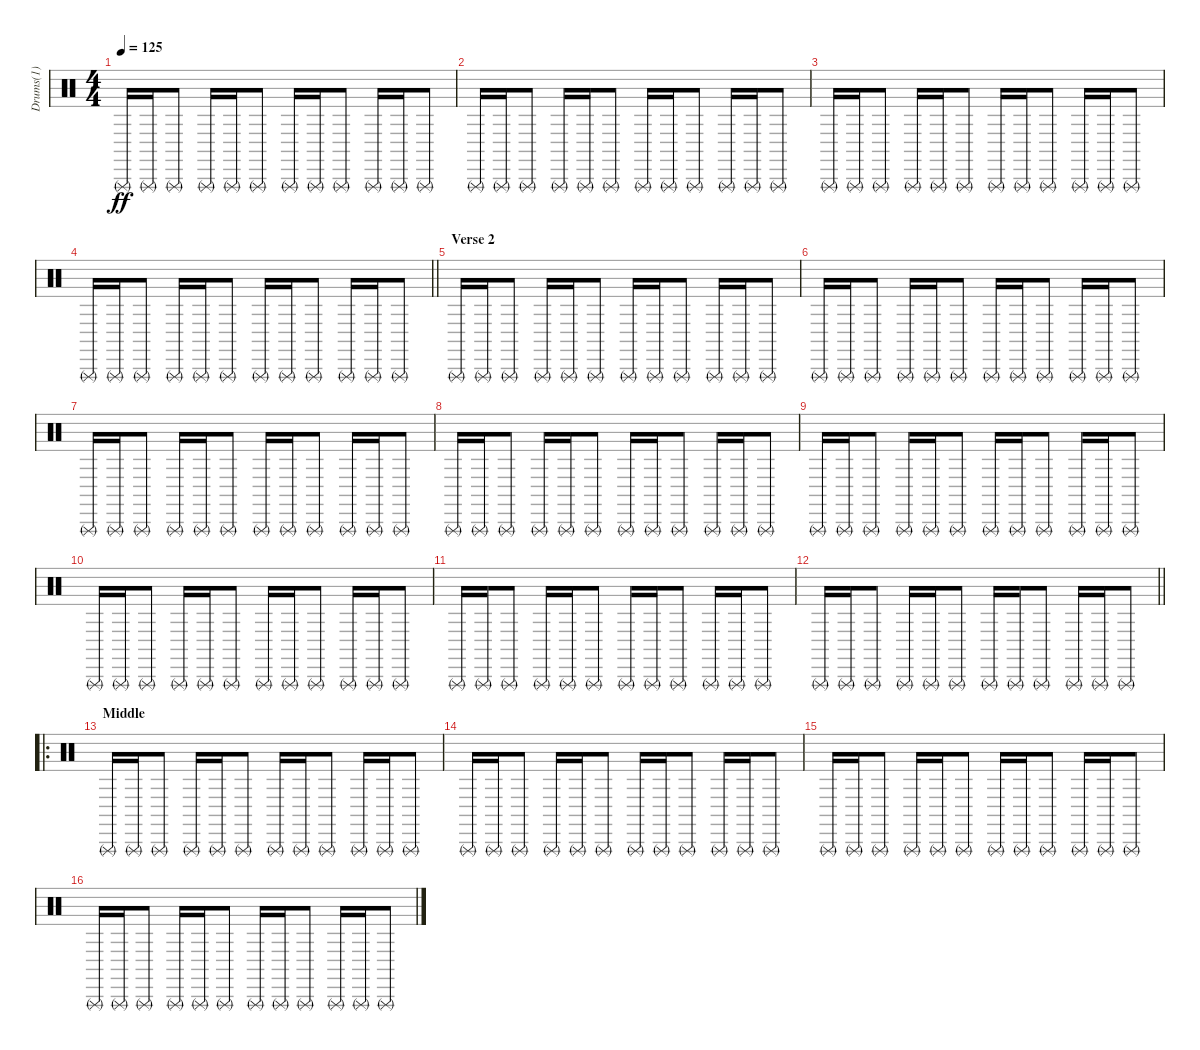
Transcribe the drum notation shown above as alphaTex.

\track ("Drums(1)" "Drums(1)") {instrument percussion}
\staff {score}
\articulation defaults
\ts (4 4)
\tempo 125
\clef neutral
\ks c "Triangle (rnute)".16{dy ff} "Triangle (rnute)".16 "Triangle (rnute)".8 "Triangle (rnute)".16 "Triangle (rnute)".16 "Triangle (rnute)".8 "Triangle (rnute)".16 "Triangle (rnute)".16 "Triangle (rnute)".8 "Triangle (rnute)".16 "Triangle (rnute)".16 "Triangle (rnute)".8
|
"Triangle (rnute)".16 "Triangle (rnute)".16 "Triangle (rnute)".8 "Triangle (rnute)".16 "Triangle (rnute)".16 "Triangle (rnute)".8 "Triangle (rnute)".16 "Triangle (rnute)".16 "Triangle (rnute)".8 "Triangle (rnute)".16 "Triangle (rnute)".16 "Triangle (rnute)".8 |
"Triangle (rnute)".16 "Triangle (rnute)".16 "Triangle (rnute)".8 "Triangle (rnute)".16 "Triangle (rnute)".16 "Triangle (rnute)".8 "Triangle (rnute)".16 "Triangle (rnute)".16 "Triangle (rnute)".8 "Triangle (rnute)".16 "Triangle (rnute)".16 "Triangle (rnute)".8 |
\barLineRight lightlight "Triangle (rnute)".16 "Triangle (rnute)".16 "Triangle (rnute)".8 "Triangle (rnute)".16 "Triangle (rnute)".16 "Triangle (rnute)".8 "Triangle (rnute)".16 "Triangle (rnute)".16 "Triangle (rnute)".8 "Triangle (rnute)".16 "Triangle (rnute)".16 "Triangle (rnute)".8
|
\section ("" "Verse 2")
"Triangle (rnute)".16 "Triangle (rnute)".16 "Triangle (rnute)".8 "Triangle (rnute)".16 "Triangle (rnute)".16 "Triangle (rnute)".8 "Triangle (rnute)".16 "Triangle (rnute)".16 "Triangle (rnute)".8 "Triangle (rnute)".16 "Triangle (rnute)".16 "Triangle (rnute)".8 |
"Triangle (rnute)".16 "Triangle (rnute)".16 "Triangle (rnute)".8 "Triangle (rnute)".16 "Triangle (rnute)".16 "Triangle (rnute)".8 "Triangle (rnute)".16 "Triangle (rnute)".16 "Triangle (rnute)".8 "Triangle (rnute)".16 "Triangle (rnute)".16 "Triangle (rnute)".8 |
"Triangle (rnute)".16 "Triangle (rnute)".16 "Triangle (rnute)".8 "Triangle (rnute)".16 "Triangle (rnute)".16 "Triangle (rnute)".8 "Triangle (rnute)".16 "Triangle (rnute)".16 "Triangle (rnute)".8 "Triangle (rnute)".16 "Triangle (rnute)".16 "Triangle (rnute)".8 |
"Triangle (rnute)".16 "Triangle (rnute)".16 "Triangle (rnute)".8 "Triangle (rnute)".16 "Triangle (rnute)".16 "Triangle (rnute)".8 "Triangle (rnute)".16 "Triangle (rnute)".16 "Triangle (rnute)".8 "Triangle (rnute)".16 "Triangle (rnute)".16 "Triangle (rnute)".8 |
"Triangle (rnute)".16 "Triangle (rnute)".16 "Triangle (rnute)".8 "Triangle (rnute)".16 "Triangle (rnute)".16 "Triangle (rnute)".8 "Triangle (rnute)".16 "Triangle (rnute)".16 "Triangle (rnute)".8 "Triangle (rnute)".16 "Triangle (rnute)".16 "Triangle (rnute)".8 |
"Triangle (rnute)".16 "Triangle (rnute)".16 "Triangle (rnute)".8 "Triangle (rnute)".16 "Triangle (rnute)".16 "Triangle (rnute)".8 "Triangle (rnute)".16 "Triangle (rnute)".16 "Triangle (rnute)".8 "Triangle (rnute)".16 "Triangle (rnute)".16 "Triangle (rnute)".8 |
"Triangle (rnute)".16 "Triangle (rnute)".16 "Triangle (rnute)".8 "Triangle (rnute)".16 "Triangle (rnute)".16 "Triangle (rnute)".8 "Triangle (rnute)".16 "Triangle (rnute)".16 "Triangle (rnute)".8 "Triangle (rnute)".16 "Triangle (rnute)".16 "Triangle (rnute)".8 |
\barLineRight lightlight "Triangle (rnute)".16 "Triangle (rnute)".16 "Triangle (rnute)".8 "Triangle (rnute)".16 "Triangle (rnute)".16 "Triangle (rnute)".8 "Triangle (rnute)".16 "Triangle (rnute)".16 "Triangle (rnute)".8 "Triangle (rnute)".16 "Triangle (rnute)".16 "Triangle (rnute)".8
|
\ro
\section ("" "Middle")
"Triangle (rnute)".16{volume 16} "Triangle (rnute)".16 "Triangle (rnute)".8 "Triangle (rnute)".16 "Triangle (rnute)".16 "Triangle (rnute)".8 "Triangle (rnute)".16 "Triangle (rnute)".16 "Triangle (rnute)".8 "Triangle (rnute)".16 "Triangle (rnute)".16 "Triangle (rnute)".8 |
"Triangle (rnute)".16 "Triangle (rnute)".16 "Triangle (rnute)".8 "Triangle (rnute)".16 "Triangle (rnute)".16 "Triangle (rnute)".8 "Triangle (rnute)".16 "Triangle (rnute)".16 "Triangle (rnute)".8 "Triangle (rnute)".16 "Triangle (rnute)".16 "Triangle (rnute)".8 |
"Triangle (rnute)".16 "Triangle (rnute)".16 "Triangle (rnute)".8 "Triangle (rnute)".16 "Triangle (rnute)".16 "Triangle (rnute)".8 "Triangle (rnute)".16 "Triangle (rnute)".16 "Triangle (rnute)".8 "Triangle (rnute)".16 "Triangle (rnute)".16 "Triangle (rnute)".8 |
"Triangle (rnute)".16 "Triangle (rnute)".16 "Triangle (rnute)".8 "Triangle (rnute)".16 "Triangle (rnute)".16 "Triangle (rnute)".8 "Triangle (rnute)".16 "Triangle (rnute)".16 "Triangle (rnute)".8 "Triangle (rnute)".16 "Triangle (rnute)".16 "Triangle (rnute)".8
